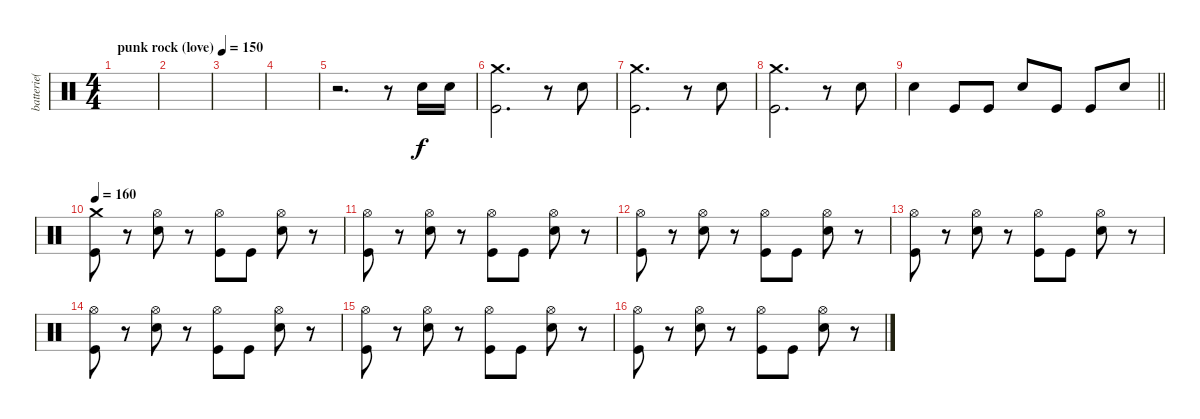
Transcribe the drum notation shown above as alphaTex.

\track ("batterie( Yureesh )" "batterie( ") {instrument percussion}
\staff {score}
\articulation defaults
\ts (4 4)
\tempo (150 "punk rock (love)")
\clef neutral
\ks c
|
|
|
|
r.2{d} r.8 "Snare (hit) 2".16 "Snare (hit) 2".16 |
("Crash medium (hit)" "Kick (hit)").2{d} r.8 "Snare (hit) 2".8 |
("Crash medium (hit)" "Kick (hit)").2{d} r.8 "Snare (hit) 2".8 |
("Crash medium (hit)" "Kick (hit)").2{d} r.8 "Snare (hit) 2".8 |
\barLineRight lightlight "Snare (hit) 2".4 "Kick (hit)".8 "Kick (hit)".8 "Snare (hit) 2".8 "Kick (hit)".8 "Kick (hit)".8 "Snare (hit) 2".8
|
\tempo 160
("Crash medium (hit)" "Kick (hit)").8 r.8 ("Hi-Hat (open)" "Snare (hit) 2").8 r.8 ("Hi-Hat (open)" "Kick (hit)").8 "Kick (hit)".8 ("Hi-Hat (open)" "Snare (hit) 2").8 r.8 |
("Hi-Hat (open)" "Kick (hit)").8 r.8 ("Hi-Hat (open)" "Snare (hit) 2").8 r.8 ("Hi-Hat (open)" "Kick (hit)").8 "Kick (hit)".8 ("Hi-Hat (open)" "Snare (hit) 2").8 r.8 |
("Hi-Hat (open)" "Kick (hit)").8 r.8 ("Hi-Hat (open)" "Snare (hit) 2").8 r.8 ("Hi-Hat (open)" "Kick (hit)").8 "Kick (hit)".8 ("Hi-Hat (open)" "Snare (hit) 2").8 r.8 |
("Hi-Hat (open)" "Kick (hit)").8 r.8 ("Hi-Hat (open)" "Snare (hit) 2").8 r.8 ("Hi-Hat (open)" "Kick (hit)").8 "Kick (hit)".8 ("Hi-Hat (open)" "Snare (hit) 2").8 r.8 |
("Hi-Hat (open)" "Kick (hit)").8 r.8 ("Hi-Hat (open)" "Snare (hit) 2").8 r.8 ("Hi-Hat (open)" "Kick (hit)").8 "Kick (hit)".8 ("Hi-Hat (open)" "Snare (hit) 2").8 r.8 |
("Hi-Hat (open)" "Kick (hit)").8 r.8 ("Hi-Hat (open)" "Snare (hit) 2").8 r.8 ("Hi-Hat (open)" "Kick (hit)").8 "Kick (hit)".8 ("Hi-Hat (open)" "Snare (hit) 2").8 r.8 |
("Hi-Hat (open)" "Kick (hit)").8 r.8 ("Hi-Hat (open)" "Snare (hit) 2").8 r.8 ("Hi-Hat (open)" "Kick (hit)").8 "Kick (hit)".8 ("Hi-Hat (open)" "Snare (hit) 2").8 r.8
